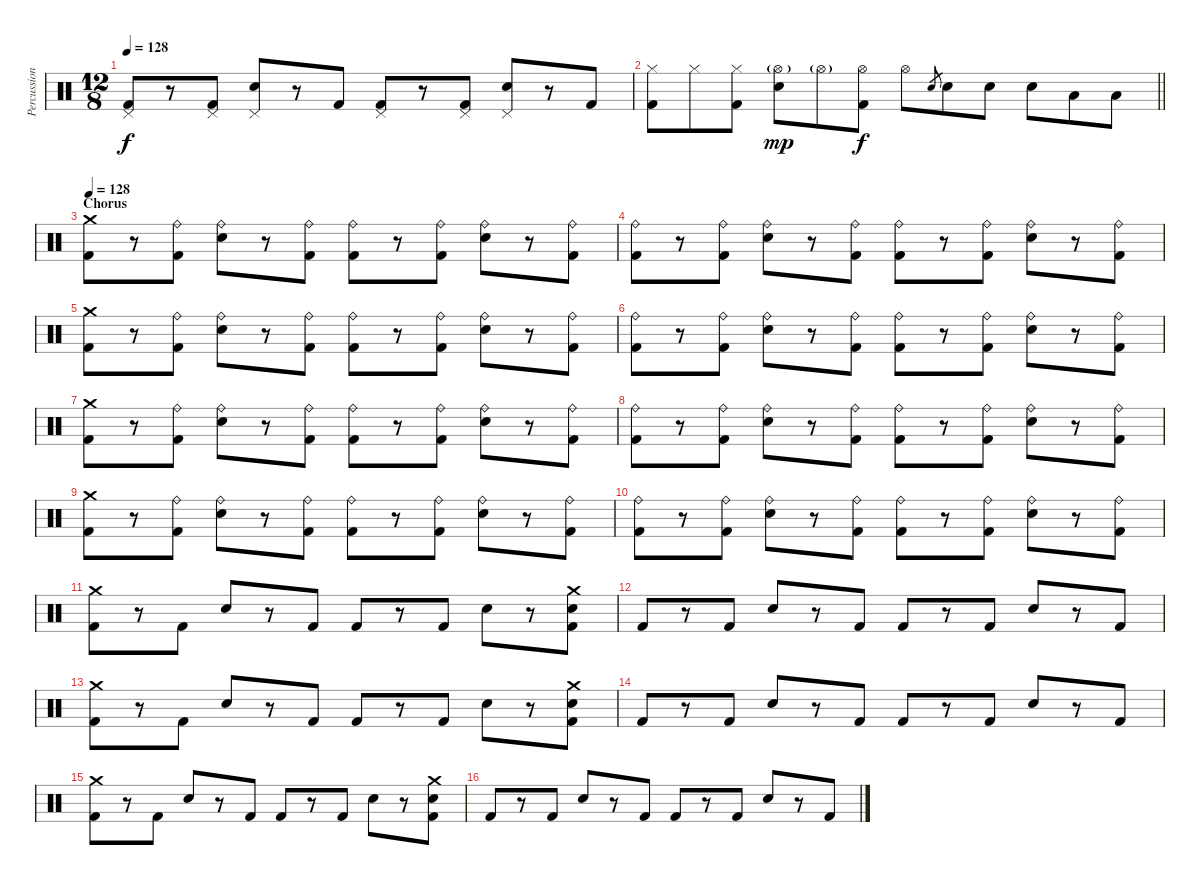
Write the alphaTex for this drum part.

\track ("Percussion" "Percussion") {instrument percussion}
\staff {score}
\articulation defaults
\ts (12 8)
\tempo 128
\clef neutral
\ks c
("Pedal Hi-Hat (hit)" "Kick (hit) 2").8{dy f} r.8 ("Pedal Hi-Hat (hit)" "Kick (hit) 2").8 ("Pedal Hi-Hat (hit)" "Snare (hit) 2").8 r.8 "Kick (hit) 2".8 ("Pedal Hi-Hat (hit)" "Kick (hit) 2").8 r.8 ("Pedal Hi-Hat (hit)" "Kick (hit) 2").8 ("Pedal Hi-Hat (hit)" "Snare (hit) 2").8 r.8 "Kick (hit) 2".8 |
\barLineRight lightlight
("Hi-Hat (closed)" "Kick (hit) 2").8 "Hi-Hat (closed)".8 ("Hi-Hat (closed)" "Kick (hit) 2").8 ("Hi-Hat (open)"{g} "Snare (hit) 2").8{dy mp} "Hi-Hat (open)"{g}.8 ("Hi-Hat (open)" "Kick (hit) 2").8{dy f} "Hi-Hat (open)".8 "Snare (hit) 2".8{gr} "Snare (hit) 2".8 "Snare (hit) 2".8 "Snare (hit) 2".8 "Low Tom (hit)".8 "Low Floor Tom (hit)".8 |
\section ("" "Chorus")
\tempo 128
("Crash medium (hit)" "Kick (hit) 2").8 r.8 ("Ride (bell)" "Kick (hit) 2").8 ("Ride (bell)" "Snare (hit) 2").8 r.8 ("Ride (bell)" "Kick (hit) 2").8 ("Ride (bell)" "Kick (hit) 2").8 r.8 ("Ride (bell)" "Kick (hit) 2").8 ("Ride (bell)" "Snare (hit) 2").8 r.8 ("Ride (bell)" "Kick (hit) 2").8 |
("Ride (bell)" "Kick (hit) 2").8 r.8 ("Ride (bell)" "Kick (hit) 2").8 ("Ride (bell)" "Snare (hit) 2").8 r.8 ("Ride (bell)" "Kick (hit) 2").8 ("Ride (bell)" "Kick (hit) 2").8 r.8 ("Ride (bell)" "Kick (hit) 2").8 ("Ride (bell)" "Snare (hit) 2").8 r.8 ("Ride (bell)" "Kick (hit) 2").8 |
("Crash medium (hit)" "Kick (hit) 2").8 r.8 ("Ride (bell)" "Kick (hit) 2").8 ("Ride (bell)" "Snare (hit) 2").8 r.8 ("Ride (bell)" "Kick (hit) 2").8 ("Ride (bell)" "Kick (hit) 2").8 r.8 ("Ride (bell)" "Kick (hit) 2").8 ("Ride (bell)" "Snare (hit) 2").8 r.8 ("Ride (bell)" "Kick (hit) 2").8 |
("Ride (bell)" "Kick (hit) 2").8 r.8 ("Ride (bell)" "Kick (hit) 2").8 ("Ride (bell)" "Snare (hit) 2").8 r.8 ("Ride (bell)" "Kick (hit) 2").8 ("Ride (bell)" "Kick (hit) 2").8 r.8 ("Ride (bell)" "Kick (hit) 2").8 ("Ride (bell)" "Snare (hit) 2").8 r.8 ("Ride (bell)" "Kick (hit) 2").8 |
("Crash medium (hit)" "Kick (hit) 2").8 r.8 ("Ride (bell)" "Kick (hit) 2").8 ("Ride (bell)" "Snare (hit) 2").8 r.8 ("Ride (bell)" "Kick (hit) 2").8 ("Ride (bell)" "Kick (hit) 2").8 r.8 ("Ride (bell)" "Kick (hit) 2").8 ("Ride (bell)" "Snare (hit) 2").8 r.8 ("Ride (bell)" "Kick (hit) 2").8 |
("Ride (bell)" "Kick (hit) 2").8 r.8 ("Ride (bell)" "Kick (hit) 2").8 ("Ride (bell)" "Snare (hit) 2").8 r.8 ("Ride (bell)" "Kick (hit) 2").8 ("Ride (bell)" "Kick (hit) 2").8 r.8 ("Ride (bell)" "Kick (hit) 2").8 ("Ride (bell)" "Snare (hit) 2").8 r.8 ("Ride (bell)" "Kick (hit) 2").8 |
("Crash medium (hit)" "Kick (hit) 2").8 r.8 ("Ride (bell)" "Kick (hit) 2").8 ("Ride (bell)" "Snare (hit) 2").8 r.8 ("Ride (bell)" "Kick (hit) 2").8 ("Ride (bell)" "Kick (hit) 2").8 r.8 ("Ride (bell)" "Kick (hit) 2").8 ("Ride (bell)" "Snare (hit) 2").8 r.8 ("Ride (bell)" "Kick (hit) 2").8 |
("Ride (bell)" "Kick (hit) 2").8 r.8 ("Ride (bell)" "Kick (hit) 2").8 ("Ride (bell)" "Snare (hit) 2").8 r.8 ("Ride (bell)" "Kick (hit) 2").8 ("Ride (bell)" "Kick (hit) 2").8 r.8 ("Ride (bell)" "Kick (hit) 2").8 ("Ride (bell)" "Snare (hit) 2").8 r.8 ("Ride (bell)" "Kick (hit) 2").8 |
("Crash medium (hit)" "Kick (hit) 2").8 r.8 "Kick (hit) 2".8 "Snare (hit) 2".8 r.8 "Kick (hit) 2".8 "Kick (hit) 2".8 r.8 "Kick (hit) 2".8 "Snare (hit) 2".8 r.8 ("Crash medium (hit)" "Snare (hit) 2" "Kick (hit) 2").8 |
"Kick (hit) 2".8 r.8 "Kick (hit) 2".8 "Snare (hit) 2".8 r.8 "Kick (hit) 2".8 "Kick (hit) 2".8 r.8 "Kick (hit) 2".8 "Snare (hit) 2".8 r.8 "Kick (hit) 2".8 |
("Crash medium (hit)" "Kick (hit) 2").8 r.8 "Kick (hit) 2".8 "Snare (hit) 2".8 r.8 "Kick (hit) 2".8 "Kick (hit) 2".8 r.8 "Kick (hit) 2".8 "Snare (hit) 2".8 r.8 ("Crash medium (hit)" "Snare (hit) 2" "Kick (hit) 2").8 |
"Kick (hit) 2".8 r.8 "Kick (hit) 2".8 "Snare (hit) 2".8 r.8 "Kick (hit) 2".8 "Kick (hit) 2".8 r.8 "Kick (hit) 2".8 "Snare (hit) 2".8 r.8 "Kick (hit) 2".8 |
("Crash medium (hit)" "Kick (hit) 2").8 r.8 "Kick (hit) 2".8 "Snare (hit) 2".8 r.8 "Kick (hit) 2".8 "Kick (hit) 2".8 r.8 "Kick (hit) 2".8 "Snare (hit) 2".8 r.8 ("Crash medium (hit)" "Snare (hit) 2" "Kick (hit) 2").8 |
"Kick (hit) 2".8 r.8 "Kick (hit) 2".8 "Snare (hit) 2".8 r.8 "Kick (hit) 2".8 "Kick (hit) 2".8 r.8 "Kick (hit) 2".8 "Snare (hit) 2".8 r.8 "Kick (hit) 2".8
